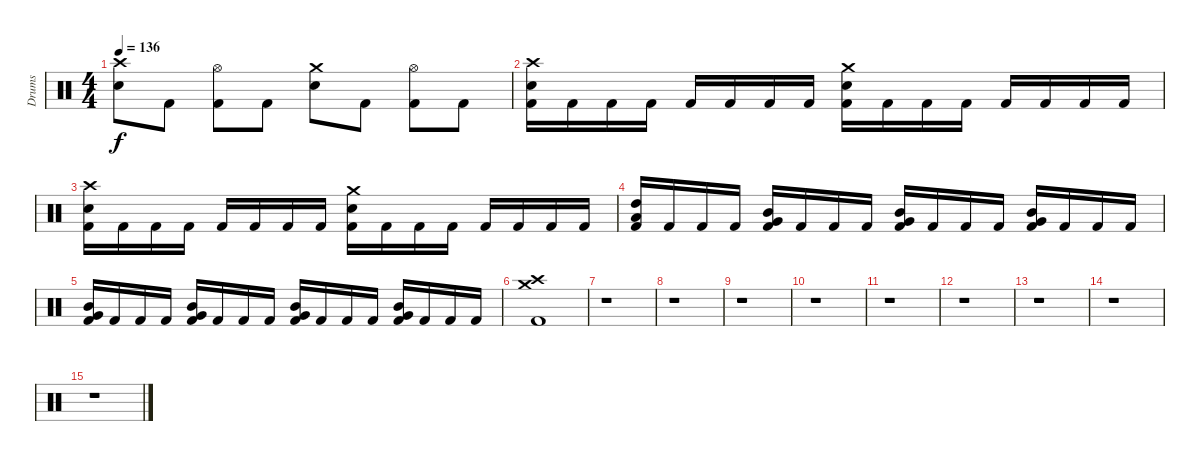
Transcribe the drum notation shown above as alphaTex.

\track ("Drums" "Drums") {instrument percussion}
\staff {score}
\articulation defaults
\ts (4 4)
\tempo 136
\clef neutral
\ks c
("Crash high (hit)" "Electric Snare (hit)").8{dy f} "Kick (hit) 2".8 ("Hi-Hat (open)" "Kick (hit) 2").8 "Kick (hit) 2".8 ("Crash medium (hit)" "Electric Snare (hit)").8 "Kick (hit) 2".8 ("Hi-Hat (open)" "Kick (hit) 2").8 "Kick (hit) 2".8 |
("Crash high (hit)" "Electric Snare (hit)" "Kick (hit) 2").16 "Kick (hit) 2".16 "Kick (hit) 2".16 "Kick (hit) 2".16 "Kick (hit) 2".16 "Kick (hit) 2".16 "Kick (hit) 2".16 "Kick (hit) 2".16 ("Crash medium (hit)" "Electric Snare (hit)" "Kick (hit) 2").16 "Kick (hit) 2".16 "Kick (hit) 2".16 "Kick (hit) 2".16 "Kick (hit) 2".16 "Kick (hit) 2".16 "Kick (hit) 2".16 "Kick (hit) 2".16 |
("Crash high (hit)" "Electric Snare (hit)" "Kick (hit) 2").16 "Kick (hit) 2".16 "Kick (hit) 2".16 "Kick (hit) 2".16 "Kick (hit) 2".16 "Kick (hit) 2".16 "Kick (hit) 2".16 "Kick (hit) 2".16 ("Crash medium (hit)" "Electric Snare (hit)" "Kick (hit) 2").16 "Kick (hit) 2".16 "Kick (hit) 2".16 "Kick (hit) 2".16 "Kick (hit) 2".16 "Kick (hit) 2".16 "Kick (hit) 2".16 "Kick (hit) 2".16 |
("High Tom (hit)" "Low Tom (hit)" "Kick (hit) 2").16 "Kick (hit) 2".16 "Kick (hit) 2".16 "Kick (hit) 2".16 ("Mid Tom (hit)" "Very Low Tom (hit)" "Kick (hit) 2").16 "Kick (hit) 2".16 "Kick (hit) 2".16 "Kick (hit) 2".16 ("Mid Tom (hit)" "Very Low Tom (hit)" "Kick (hit) 2").16 "Kick (hit) 2".16 "Kick (hit) 2".16 "Kick (hit) 2".16 ("Mid Tom (hit)" "Very Low Tom (hit)" "Kick (hit) 2").16 "Kick (hit) 2".16 "Kick (hit) 2".16 "Kick (hit) 2".16 |
("Mid Tom (hit)" "Very Low Tom (hit)" "Kick (hit) 2").16 "Kick (hit) 2".16 "Kick (hit) 2".16 "Kick (hit) 2".16 ("Mid Tom (hit)" "Very Low Tom (hit)" "Kick (hit) 2").16 "Kick (hit) 2".16 "Kick (hit) 2".16 "Kick (hit) 2".16 ("Mid Tom (hit)" "Very Low Tom (hit)" "Kick (hit) 2").16 "Kick (hit) 2".16 "Kick (hit) 2".16 "Kick (hit) 2".16 ("Mid Tom (hit)" "Very Low Tom (hit)" "Kick (hit) 2").16 "Kick (hit) 2".16 "Kick (hit) 2".16 "Kick (hit) 2".16 |
("Crash high (hit)" "Crash medium (hit)" "Kick (hit) 2").1 |
r.1 |
r.1 |
r.1 |
r.1 |
r.1 |
r.1 |
r.1 |
r.1 |
r.1
